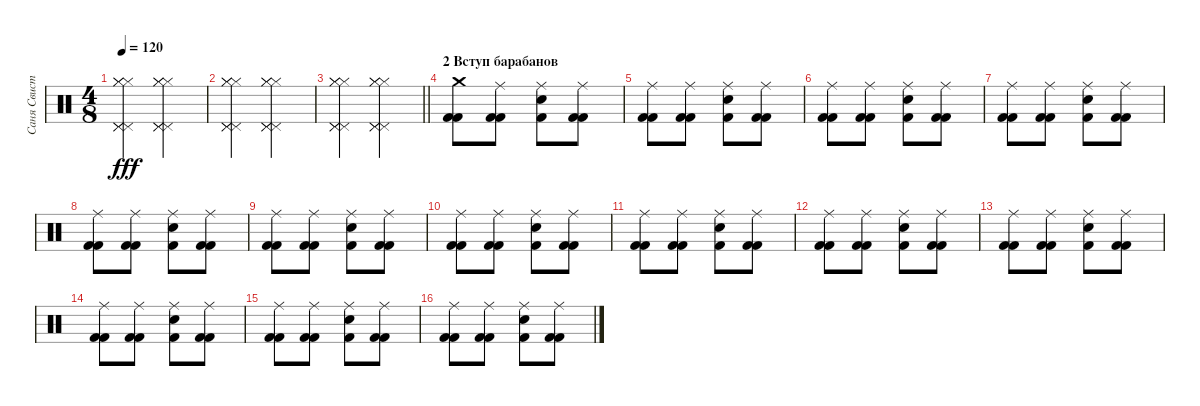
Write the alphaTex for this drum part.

\track ("Саня Свистун - Drums" "Саня Свист") {instrument percussion}
\staff {score}
\articulation defaults
\ts (4 8)
\tempo 120
\clef neutral
\ks c
("Pedal Hi-Hat (hit)" "Pedal Hi-Hat (hit)" "Pedal Hi-Hat (hit)" "Hi-Hat (closed)" "Hi-Hat (closed)" "Hi-Hat (closed)").4{dy fff} ("Pedal Hi-Hat (hit)" "Pedal Hi-Hat (hit)" "Pedal Hi-Hat (hit)" "Hi-Hat (closed)" "Hi-Hat (closed)" "Hi-Hat (closed)").4 |
("Pedal Hi-Hat (hit)" "Pedal Hi-Hat (hit)" "Pedal Hi-Hat (hit)" "Hi-Hat (closed)" "Hi-Hat (closed)" "Hi-Hat (closed)").4 ("Pedal Hi-Hat (hit)" "Pedal Hi-Hat (hit)" "Pedal Hi-Hat (hit)" "Hi-Hat (closed)" "Hi-Hat (closed)" "Hi-Hat (closed)").4 |
\barLineRight lightlight
("Pedal Hi-Hat (hit)" "Pedal Hi-Hat (hit)" "Pedal Hi-Hat (hit)" "Hi-Hat (closed)" "Hi-Hat (closed)" "Hi-Hat (closed)").4 ("Pedal Hi-Hat (hit)" "Pedal Hi-Hat (hit)" "Pedal Hi-Hat (hit)" "Hi-Hat (closed)" "Hi-Hat (closed)" "Hi-Hat (closed)").4 |
\section ("" "2 Вступ барабанов")
("Kick (hit) 2" "Kick (hit) 2" "Crash medium (hit)").8 ("Kick (hit) 2" "Kick (hit) 2" "Ride (middle)").8 ("Electric Snare (hit)" "Kick (hit) 2" "Ride (middle)").8 ("Kick (hit) 2" "Kick (hit) 2" "Ride (middle)").8 |
("Kick (hit) 2" "Kick (hit) 2" "Ride (middle)").8 ("Kick (hit) 2" "Kick (hit) 2" "Ride (middle)").8 ("Electric Snare (hit)" "Kick (hit) 2" "Ride (middle)").8 ("Kick (hit) 2" "Kick (hit) 2" "Ride (middle)").8 |
("Kick (hit) 2" "Kick (hit) 2" "Ride (middle)").8 ("Kick (hit) 2" "Kick (hit) 2" "Ride (middle)").8 ("Electric Snare (hit)" "Kick (hit) 2" "Ride (middle)").8 ("Kick (hit) 2" "Kick (hit) 2" "Ride (middle)").8 |
("Kick (hit) 2" "Kick (hit) 2" "Ride (middle)").8 ("Kick (hit) 2" "Kick (hit) 2" "Ride (middle)").8 ("Electric Snare (hit)" "Kick (hit) 2" "Ride (middle)").8 ("Kick (hit) 2" "Kick (hit) 2" "Ride (middle)").8 |
("Kick (hit) 2" "Kick (hit) 2" "Ride (middle)").8 ("Kick (hit) 2" "Kick (hit) 2" "Ride (middle)").8 ("Electric Snare (hit)" "Kick (hit) 2" "Ride (middle)").8 ("Kick (hit) 2" "Kick (hit) 2" "Ride (middle)").8 |
("Kick (hit) 2" "Kick (hit) 2" "Ride (middle)").8 ("Kick (hit) 2" "Kick (hit) 2" "Ride (middle)").8 ("Electric Snare (hit)" "Kick (hit) 2" "Ride (middle)").8 ("Kick (hit) 2" "Kick (hit) 2" "Ride (middle)").8 |
("Kick (hit) 2" "Kick (hit) 2" "Ride (middle)").8 ("Kick (hit) 2" "Kick (hit) 2" "Ride (middle)").8 ("Electric Snare (hit)" "Kick (hit) 2" "Ride (middle)").8 ("Kick (hit) 2" "Kick (hit) 2" "Ride (middle)").8 |
("Kick (hit) 2" "Kick (hit) 2" "Ride (middle)").8 ("Kick (hit) 2" "Kick (hit) 2" "Ride (middle)").8 ("Electric Snare (hit)" "Kick (hit) 2" "Ride (middle)").8 ("Kick (hit) 2" "Kick (hit) 2" "Ride (middle)").8 |
("Kick (hit) 2" "Kick (hit) 2" "Ride (middle)").8 ("Kick (hit) 2" "Kick (hit) 2" "Ride (middle)").8 ("Electric Snare (hit)" "Kick (hit) 2" "Ride (middle)").8 ("Kick (hit) 2" "Kick (hit) 2" "Ride (middle)").8 |
("Kick (hit) 2" "Kick (hit) 2" "Ride (middle)").8 ("Kick (hit) 2" "Kick (hit) 2" "Ride (middle)").8 ("Electric Snare (hit)" "Kick (hit) 2" "Ride (middle)").8 ("Kick (hit) 2" "Kick (hit) 2" "Ride (middle)").8 |
("Kick (hit) 2" "Kick (hit) 2" "Ride (middle)").8 ("Kick (hit) 2" "Kick (hit) 2" "Ride (middle)").8 ("Electric Snare (hit)" "Kick (hit) 2" "Ride (middle)").8 ("Kick (hit) 2" "Kick (hit) 2" "Ride (middle)").8 |
("Kick (hit) 2" "Kick (hit) 2" "Ride (middle)").8 ("Kick (hit) 2" "Kick (hit) 2" "Ride (middle)").8 ("Electric Snare (hit)" "Kick (hit) 2" "Ride (middle)").8 ("Kick (hit) 2" "Kick (hit) 2" "Ride (middle)").8 |
("Kick (hit) 2" "Kick (hit) 2" "Ride (middle)").8 ("Kick (hit) 2" "Kick (hit) 2" "Ride (middle)").8 ("Electric Snare (hit)" "Kick (hit) 2" "Ride (middle)").8 ("Kick (hit) 2" "Kick (hit) 2" "Ride (middle)").8
